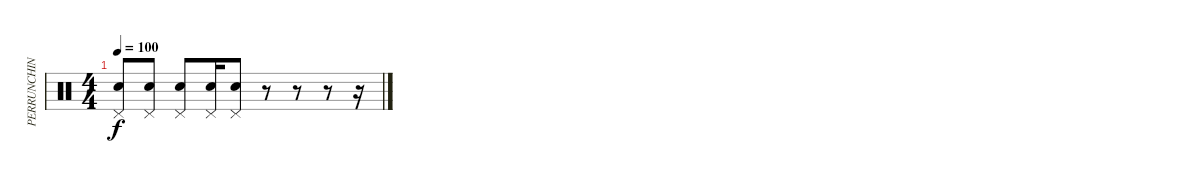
\track ("PERRUNCHIN" "PERRUNCHIN") {instrument percussion}
\staff {score}
\articulation defaults
\ts (4 4)
\tempo 100
\clef neutral
\ks c
("Pedal Hi-Hat (hit)" "Electric Snare (hit)").8{dy f} ("Pedal Hi-Hat (hit)" "Electric Snare (hit)").8 ("Pedal Hi-Hat (hit)" "Electric Snare (hit)").8 ("Pedal Hi-Hat (hit)" "Electric Snare (hit)").16 ("Pedal Hi-Hat (hit)" "Electric Snare (hit)").8 r.8 r.8 r.8 r.16
